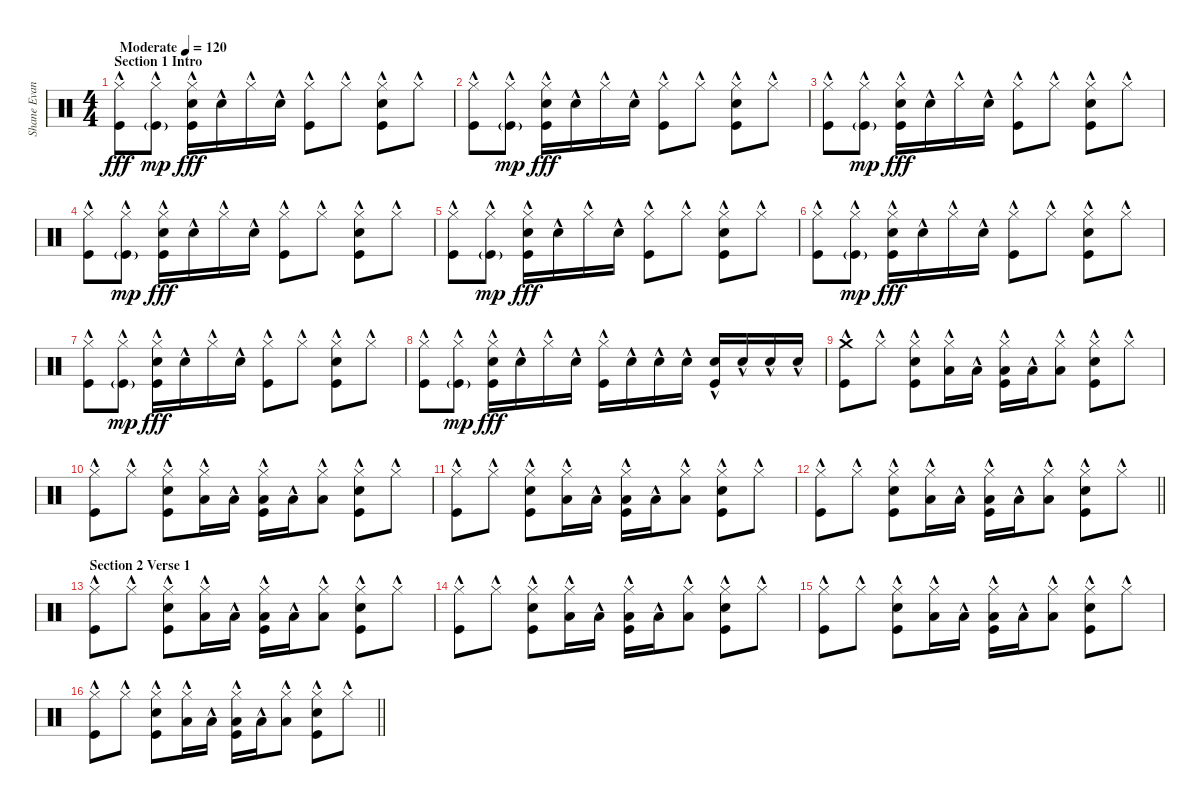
\track ("Shane Evans" "Shane Evan") {instrument percussion}
\staff {score}
\articulation defaults
\ts (4 4)
\section ("" "Section 1 Intro")
\tempo (120 "Moderate")
\clef neutral
\ks c
("Hi-Hat (closed)"{hac} "Kick (hit)"{hac}).8{dy fff} ("Hi-Hat (closed)"{hac} "Kick (hit)"{g}).8{dy mp} ("Hi-Hat (closed)"{hac} "Electric Snare (hit)"{hac} "Kick (hit)"{hac}).16{dy fff} "Electric Snare (hit)"{hac}.16 "Hi-Hat (closed)"{hac}.16 "Electric Snare (hit)"{hac}.16 ("Hi-Hat (closed)"{hac} "Kick (hit)"{hac}).8 "Hi-Hat (closed)"{hac}.8 ("Hi-Hat (closed)"{hac} "Electric Snare (hit)"{hac} "Kick (hit)"{hac}).8 "Hi-Hat (closed)"{hac}.8 |
("Hi-Hat (closed)"{hac} "Kick (hit)"{hac}).8 ("Hi-Hat (closed)"{hac} "Kick (hit)"{g}).8{dy mp} ("Hi-Hat (closed)"{hac} "Electric Snare (hit)"{hac} "Kick (hit)"{hac}).16{dy fff} "Electric Snare (hit)"{hac}.16 "Hi-Hat (closed)"{hac}.16 "Electric Snare (hit)"{hac}.16 ("Hi-Hat (closed)"{hac} "Kick (hit)"{hac}).8 "Hi-Hat (closed)"{hac}.8 ("Hi-Hat (closed)"{hac} "Electric Snare (hit)"{hac} "Kick (hit)"{hac}).8 "Hi-Hat (closed)"{hac}.8 |
("Hi-Hat (closed)"{hac} "Kick (hit)"{hac}).8 ("Hi-Hat (closed)"{hac} "Kick (hit)"{g}).8{dy mp} ("Hi-Hat (closed)"{hac} "Electric Snare (hit)"{hac} "Kick (hit)"{hac}).16{dy fff} "Electric Snare (hit)"{hac}.16 "Hi-Hat (closed)"{hac}.16 "Electric Snare (hit)"{hac}.16 ("Hi-Hat (closed)"{hac} "Kick (hit)"{hac}).8 "Hi-Hat (closed)"{hac}.8 ("Hi-Hat (closed)"{hac} "Electric Snare (hit)"{hac} "Kick (hit)"{hac}).8 "Hi-Hat (closed)"{hac}.8 |
("Hi-Hat (closed)"{hac} "Kick (hit)"{hac}).8 ("Hi-Hat (closed)"{hac} "Kick (hit)"{g}).8{dy mp} ("Hi-Hat (closed)"{hac} "Electric Snare (hit)"{hac} "Kick (hit)"{hac}).16{dy fff} "Electric Snare (hit)"{hac}.16 "Hi-Hat (closed)"{hac}.16 "Electric Snare (hit)"{hac}.16 ("Hi-Hat (closed)"{hac} "Kick (hit)"{hac}).8 "Hi-Hat (closed)"{hac}.8 ("Hi-Hat (closed)"{hac} "Electric Snare (hit)"{hac} "Kick (hit)"{hac}).8 "Hi-Hat (closed)"{hac}.8 |
("Hi-Hat (closed)"{hac} "Kick (hit)"{hac}).8 ("Hi-Hat (closed)"{hac} "Kick (hit)"{g}).8{dy mp} ("Hi-Hat (closed)"{hac} "Electric Snare (hit)"{hac} "Kick (hit)"{hac}).16{dy fff} "Electric Snare (hit)"{hac}.16 "Hi-Hat (closed)"{hac}.16 "Electric Snare (hit)"{hac}.16 ("Hi-Hat (closed)"{hac} "Kick (hit)"{hac}).8 "Hi-Hat (closed)"{hac}.8 ("Hi-Hat (closed)"{hac} "Electric Snare (hit)"{hac} "Kick (hit)"{hac}).8 "Hi-Hat (closed)"{hac}.8 |
("Hi-Hat (closed)"{hac} "Kick (hit)"{hac}).8 ("Hi-Hat (closed)"{hac} "Kick (hit)"{g}).8{dy mp} ("Hi-Hat (closed)"{hac} "Electric Snare (hit)"{hac} "Kick (hit)"{hac}).16{dy fff} "Electric Snare (hit)"{hac}.16 "Hi-Hat (closed)"{hac}.16 "Electric Snare (hit)"{hac}.16 ("Hi-Hat (closed)"{hac} "Kick (hit)"{hac}).8 "Hi-Hat (closed)"{hac}.8 ("Hi-Hat (closed)"{hac} "Electric Snare (hit)"{hac} "Kick (hit)"{hac}).8 "Hi-Hat (closed)"{hac}.8 |
("Hi-Hat (closed)"{hac} "Kick (hit)"{hac}).8 ("Hi-Hat (closed)"{hac} "Kick (hit)"{g}).8{dy mp} ("Hi-Hat (closed)"{hac} "Electric Snare (hit)"{hac} "Kick (hit)"{hac}).16{dy fff} "Electric Snare (hit)"{hac}.16 "Hi-Hat (closed)"{hac}.16 "Electric Snare (hit)"{hac}.16 ("Hi-Hat (closed)"{hac} "Kick (hit)"{hac}).8 "Hi-Hat (closed)"{hac}.8 ("Hi-Hat (closed)"{hac} "Electric Snare (hit)"{hac} "Kick (hit)"{hac}).8 "Hi-Hat (closed)"{hac}.8 |
("Hi-Hat (closed)"{hac} "Kick (hit)"{hac}).8 ("Hi-Hat (closed)"{hac} "Kick (hit)"{g}).8{dy mp} ("Hi-Hat (closed)"{hac} "Electric Snare (hit)"{hac} "Kick (hit)"{hac}).16{dy fff} "Electric Snare (hit)"{hac}.16 "Hi-Hat (closed)"{hac}.16 "Electric Snare (hit)"{hac}.16 ("Hi-Hat (closed)"{hac} "Kick (hit)"{hac}).16 "Electric Snare (hit)"{hac}.16 "Electric Snare (hit)"{hac}.16 "Electric Snare (hit)"{hac}.16 ("Electric Snare (hit)"{hac} "Kick (hit)"{hac}).16 "Electric Snare (hit)"{hac}.16 "Electric Snare (hit)"{hac}.16 "Electric Snare (hit)"{hac}.16 |
("Crash medium (hit)"{hac} "Kick (hit)"{hac}).8 "Hi-Hat (closed)"{hac}.8 ("Hi-Hat (closed)"{hac} "Electric Snare (hit)"{hac} "Kick (hit)"{hac}).8 ("Hi-Hat (closed)"{hac} "Low Tom (hit)"{hac}).16 "Low Tom (hit)"{hac}.16 ("Hi-Hat (closed)"{hac} "Low Tom (hit)"{hac} "Kick (hit)"{hac}).16 "Low Tom (hit)"{hac}.16 ("Hi-Hat (closed)"{hac} "Low Tom (hit)"{hac}).8 ("Hi-Hat (closed)"{hac} "Electric Snare (hit)"{hac} "Kick (hit)"{hac}).8 "Hi-Hat (closed)"{hac}.8 |
("Hi-Hat (closed)"{hac} "Kick (hit)"{hac}).8 "Hi-Hat (closed)"{hac}.8 ("Hi-Hat (closed)"{hac} "Electric Snare (hit)"{hac} "Kick (hit)"{hac}).8 ("Hi-Hat (closed)"{hac} "Low Tom (hit)"{hac}).16 "Low Tom (hit)"{hac}.16 ("Hi-Hat (closed)"{hac} "Low Tom (hit)"{hac} "Kick (hit)"{hac}).16 "Low Tom (hit)"{hac}.16 ("Hi-Hat (closed)"{hac} "Low Tom (hit)"{hac}).8 ("Hi-Hat (closed)"{hac} "Electric Snare (hit)"{hac} "Kick (hit)"{hac}).8 "Hi-Hat (closed)"{hac}.8 |
("Hi-Hat (closed)"{hac} "Kick (hit)"{hac}).8 "Hi-Hat (closed)"{hac}.8 ("Hi-Hat (closed)"{hac} "Electric Snare (hit)"{hac} "Kick (hit)"{hac}).8 ("Hi-Hat (closed)"{hac} "Low Tom (hit)"{hac}).16 "Low Tom (hit)"{hac}.16 ("Hi-Hat (closed)"{hac} "Low Tom (hit)"{hac} "Kick (hit)"{hac}).16 "Low Tom (hit)"{hac}.16 ("Hi-Hat (closed)"{hac} "Low Tom (hit)"{hac}).8 ("Hi-Hat (closed)"{hac} "Electric Snare (hit)"{hac} "Kick (hit)"{hac}).8 "Hi-Hat (closed)"{hac}.8 |
\barLineRight lightlight
("Hi-Hat (closed)"{hac} "Kick (hit)"{hac}).8 "Hi-Hat (closed)"{hac}.8 ("Hi-Hat (closed)"{hac} "Electric Snare (hit)"{hac} "Kick (hit)"{hac}).8 ("Hi-Hat (closed)"{hac} "Low Tom (hit)"{hac}).16 "Low Tom (hit)"{hac}.16 ("Hi-Hat (closed)"{hac} "Low Tom (hit)"{hac} "Kick (hit)"{hac}).16 "Low Tom (hit)"{hac}.16 ("Hi-Hat (closed)"{hac} "Low Tom (hit)"{hac}).8 ("Hi-Hat (closed)"{hac} "Electric Snare (hit)"{hac} "Kick (hit)"{hac}).8 "Hi-Hat (closed)"{hac}.8 |
\section ("" "Section 2 Verse 1")
("Hi-Hat (closed)"{hac} "Kick (hit)"{hac}).8 "Hi-Hat (closed)"{hac}.8 ("Hi-Hat (closed)"{hac} "Electric Snare (hit)"{hac} "Kick (hit)"{hac}).8 ("Hi-Hat (closed)"{hac} "Low Tom (hit)"{hac}).16 "Low Tom (hit)"{hac}.16 ("Hi-Hat (closed)"{hac} "Low Tom (hit)"{hac} "Kick (hit)"{hac}).16 "Low Tom (hit)"{hac}.16 ("Hi-Hat (closed)"{hac} "Low Tom (hit)"{hac}).8 ("Hi-Hat (closed)"{hac} "Electric Snare (hit)"{hac} "Kick (hit)"{hac}).8 "Hi-Hat (closed)"{hac}.8 |
("Hi-Hat (closed)"{hac} "Kick (hit)"{hac}).8 "Hi-Hat (closed)"{hac}.8 ("Hi-Hat (closed)"{hac} "Electric Snare (hit)"{hac} "Kick (hit)"{hac}).8 ("Hi-Hat (closed)"{hac} "Low Tom (hit)"{hac}).16 "Low Tom (hit)"{hac}.16 ("Hi-Hat (closed)"{hac} "Low Tom (hit)"{hac} "Kick (hit)"{hac}).16 "Low Tom (hit)"{hac}.16 ("Hi-Hat (closed)"{hac} "Low Tom (hit)"{hac}).8 ("Hi-Hat (closed)"{hac} "Electric Snare (hit)"{hac} "Kick (hit)"{hac}).8 "Hi-Hat (closed)"{hac}.8 |
("Hi-Hat (closed)"{hac} "Kick (hit)"{hac}).8 "Hi-Hat (closed)"{hac}.8 ("Hi-Hat (closed)"{hac} "Electric Snare (hit)"{hac} "Kick (hit)"{hac}).8 ("Hi-Hat (closed)"{hac} "Low Tom (hit)"{hac}).16 "Low Tom (hit)"{hac}.16 ("Hi-Hat (closed)"{hac} "Low Tom (hit)"{hac} "Kick (hit)"{hac}).16 "Low Tom (hit)"{hac}.16 ("Hi-Hat (closed)"{hac} "Low Tom (hit)"{hac}).8 ("Hi-Hat (closed)"{hac} "Electric Snare (hit)"{hac} "Kick (hit)"{hac}).8 "Hi-Hat (closed)"{hac}.8 |
\barLineRight lightlight
("Hi-Hat (closed)"{hac} "Kick (hit)"{hac}).8 "Hi-Hat (closed)"{hac}.8 ("Hi-Hat (closed)"{hac} "Electric Snare (hit)"{hac} "Kick (hit)"{hac}).8 ("Hi-Hat (closed)"{hac} "Low Tom (hit)"{hac}).16 "Low Tom (hit)"{hac}.16 ("Hi-Hat (closed)"{hac} "Low Tom (hit)"{hac} "Kick (hit)"{hac}).16 "Low Tom (hit)"{hac}.16 ("Hi-Hat (closed)"{hac} "Low Tom (hit)"{hac}).8 ("Hi-Hat (closed)"{hac} "Electric Snare (hit)"{hac} "Kick (hit)"{hac}).8 "Hi-Hat (closed)"{hac}.8
